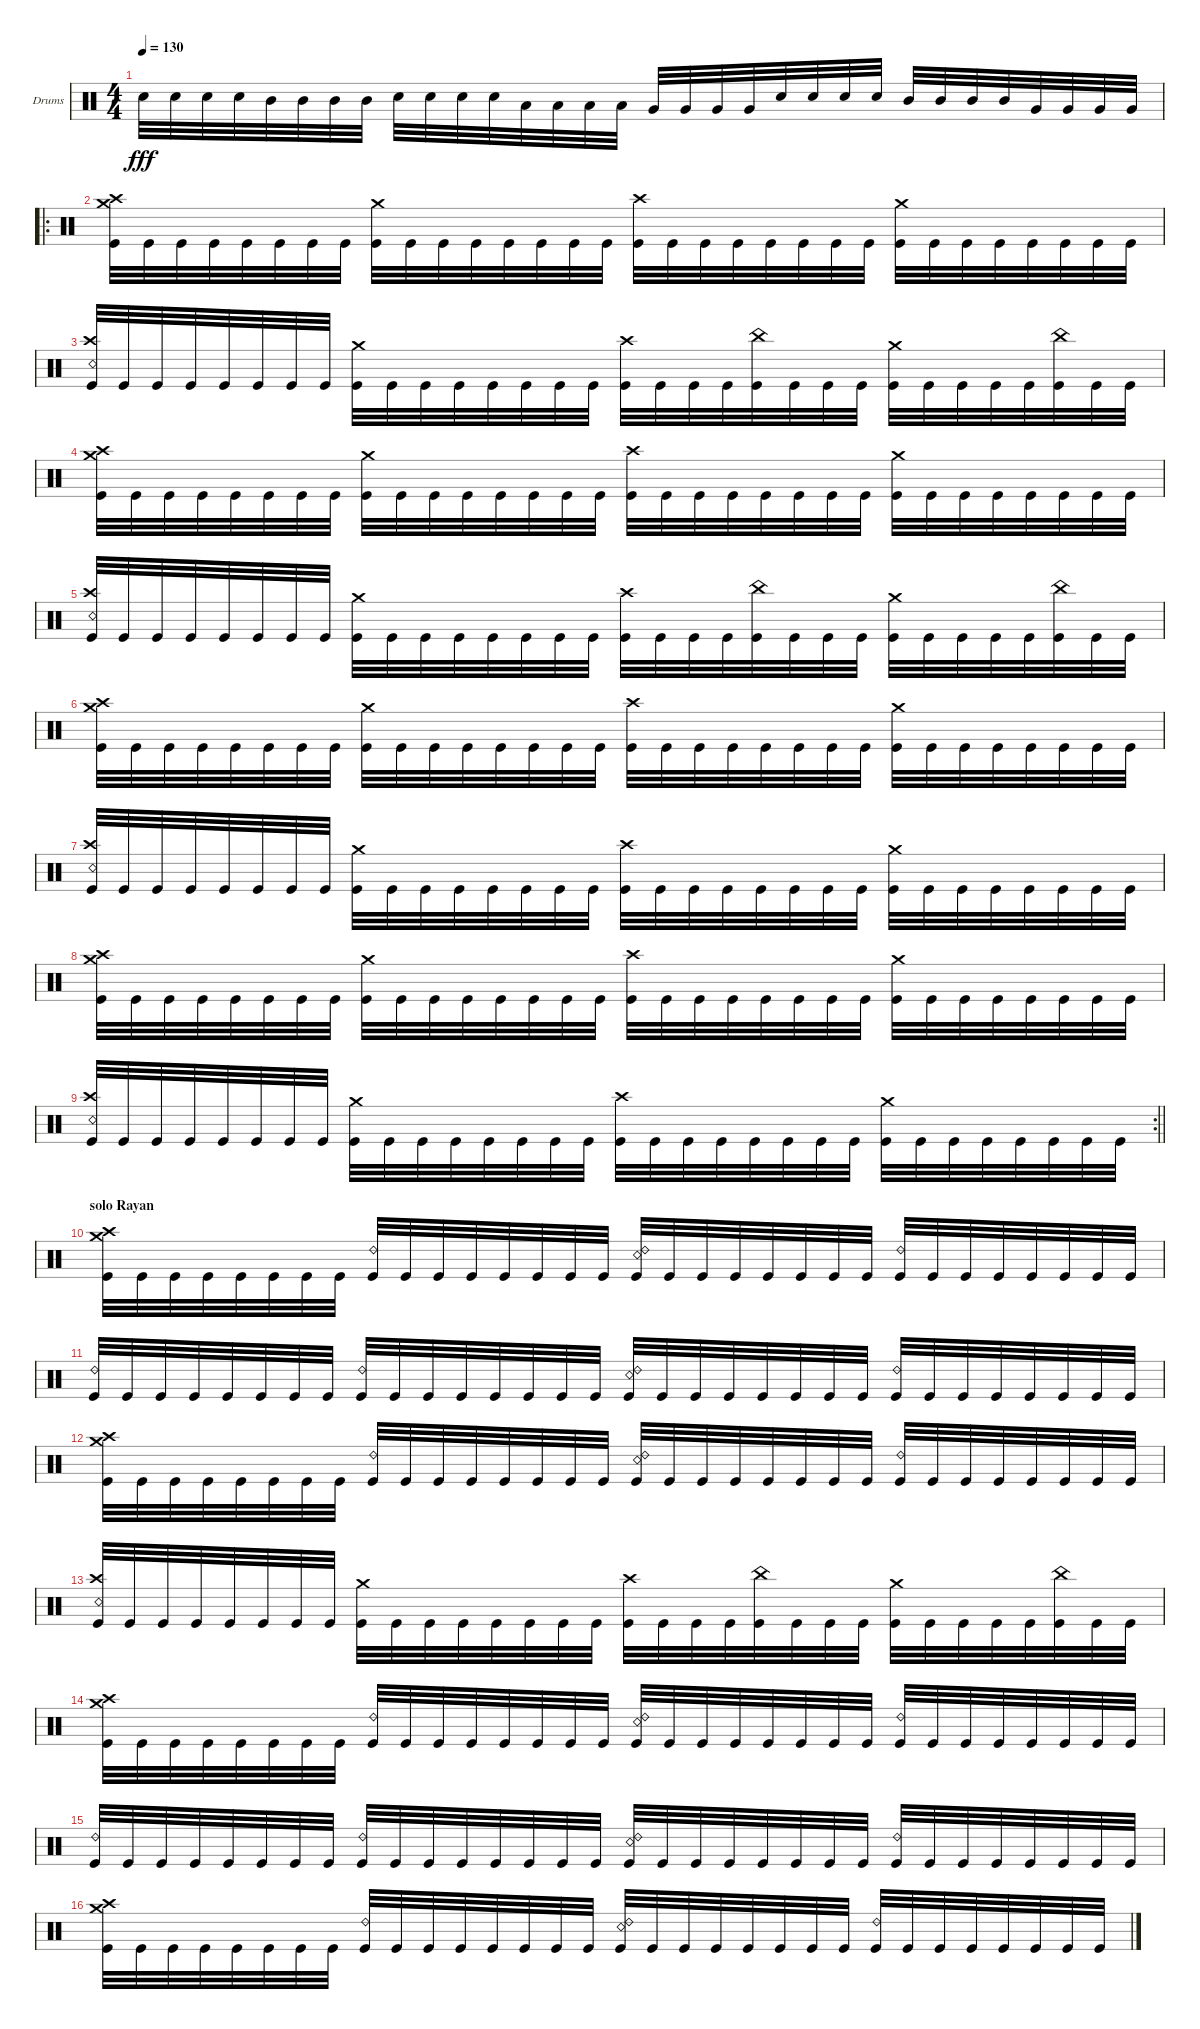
\bracketExtendMode groupsimilarinstruments
\firstSystemTrackNameOrientation horizontal
\otherSystemsTrackNameOrientation horizontal
\track ("Drumkit" "Drums") {instrument percussion}
\staff {score}
\articulation defaults
\ts (4 4)
\tempo 130
\clef neutral
\scale
0.333333
\ks c "Snare (hit) 2".32{dy fff} "Snare (hit) 2".32 "Snare (hit) 2".32 "Snare (hit) 2".32 "Mid Tom (hit)".32 "Mid Tom (hit)".32 "Mid Tom (hit)".32 "Mid Tom (hit)".32 "Snare (hit) 2".32 "Snare (hit) 2".32 "Snare (hit) 2".32 "Snare (hit) 2".32 "Low Tom (hit)".32 "Low Tom (hit)".32 "Low Tom (hit)".32 "Low Tom (hit)".32 "Very Low Tom (hit)".32 "Very Low Tom (hit)".32 "Very Low Tom (hit)".32 "Very Low Tom (hit)".32 "Snare (hit) 2".32 "Snare (hit) 2".32 "Snare (hit) 2".32 "Snare (hit) 2".32 "Mid Tom (hit)".32 "Mid Tom (hit)".32 "Mid Tom (hit)".32 "Mid Tom (hit)".32 "Very Low Tom (hit)".32 "Very Low Tom (hit)".32 "Very Low Tom (hit)".32 "Very Low Tom (hit)".32
|
\ro
\scale
0.377778 ("Kick (hit)" "Crash high (hit)" "Crash medium (hit)").32 "Kick (hit)".32 "Kick (hit)".32 "Kick (hit)".32 "Kick (hit)".32 "Kick (hit)".32 "Kick (hit)".32 "Kick (hit)".32 ("Kick (hit)" "Crash medium (hit)").32 "Kick (hit)".32 "Kick (hit)".32 "Kick (hit)".32 "Kick (hit)".32 "Kick (hit)".32 "Kick (hit)".32 "Kick (hit)".32 ("Kick (hit)" "Crash high (hit)").32 "Kick (hit)".32 "Kick (hit)".32 "Kick (hit)".32 "Kick (hit)".32 "Kick (hit)".32 "Kick (hit)".32 "Kick (hit)".32 ("Kick (hit)" "Crash medium (hit)").32 "Kick (hit)".32 "Kick (hit)".32 "Kick (hit)".32 "Kick (hit)".32 "Kick (hit)".32 "Kick (hit)".32 "Kick (hit)".32 |
\scale
0.311111 ("Kick (hit)" "Snare (rim shot)" "Crash high (hit)").32 "Kick (hit)".32 "Kick (hit)".32 "Kick (hit)".32 "Kick (hit)".32 "Kick (hit)".32 "Kick (hit)".32 "Kick (hit)".32 ("Kick (hit)" "Crash medium (hit)").32 "Kick (hit)".32 "Kick (hit)".32 "Kick (hit)".32 "Kick (hit)".32 "Kick (hit)".32 "Kick (hit)".32 "Kick (hit)".32 ("Kick (hit)" "Crash high (hit)").32 "Kick (hit)".32 "Kick (hit)".32 "Kick (hit)".32 ("Kick (hit)" "China (hit)").32 "Kick (hit)".32 "Kick (hit)".32 "Kick (hit)".32 ("Kick (hit)" "Crash medium (hit)").32 "Kick (hit)".32 "Kick (hit)".32 "Kick (hit)".32 "Kick (hit)".32 ("Kick (hit)" "China (hit)").32 "Kick (hit)".32 "Kick (hit)".32 |
\scale
0.311111 ("Kick (hit)" "Crash high (hit)" "Crash medium (hit)").32 "Kick (hit)".32 "Kick (hit)".32 "Kick (hit)".32 "Kick (hit)".32 "Kick (hit)".32 "Kick (hit)".32 "Kick (hit)".32 ("Kick (hit)" "Crash medium (hit)").32 "Kick (hit)".32 "Kick (hit)".32 "Kick (hit)".32 "Kick (hit)".32 "Kick (hit)".32 "Kick (hit)".32 "Kick (hit)".32 ("Kick (hit)" "Crash high (hit)").32 "Kick (hit)".32 "Kick (hit)".32 "Kick (hit)".32 "Kick (hit)".32 "Kick (hit)".32 "Kick (hit)".32 "Kick (hit)".32 ("Kick (hit)" "Crash medium (hit)").32 "Kick (hit)".32 "Kick (hit)".32 "Kick (hit)".32 "Kick (hit)".32 "Kick (hit)".32 "Kick (hit)".32 "Kick (hit)".32 |
\scale
0.333333 ("Kick (hit)" "Snare (rim shot)" "Crash high (hit)").32 "Kick (hit)".32 "Kick (hit)".32 "Kick (hit)".32 "Kick (hit)".32 "Kick (hit)".32 "Kick (hit)".32 "Kick (hit)".32 ("Kick (hit)" "Crash medium (hit)").32 "Kick (hit)".32 "Kick (hit)".32 "Kick (hit)".32 "Kick (hit)".32 "Kick (hit)".32 "Kick (hit)".32 "Kick (hit)".32 ("Kick (hit)" "Crash high (hit)").32 "Kick (hit)".32 "Kick (hit)".32 "Kick (hit)".32 ("Kick (hit)" "China (hit)").32 "Kick (hit)".32 "Kick (hit)".32 "Kick (hit)".32 ("Kick (hit)" "Crash medium (hit)").32 "Kick (hit)".32 "Kick (hit)".32 "Kick (hit)".32 "Kick (hit)".32 ("Kick (hit)" "China (hit)").32 "Kick (hit)".32 "Kick (hit)".32 |
\scale
0.333333 ("Kick (hit)" "Crash high (hit)" "Crash medium (hit)").32 "Kick (hit)".32 "Kick (hit)".32 "Kick (hit)".32 "Kick (hit)".32 "Kick (hit)".32 "Kick (hit)".32 "Kick (hit)".32 ("Kick (hit)" "Crash medium (hit)").32 "Kick (hit)".32 "Kick (hit)".32 "Kick (hit)".32 "Kick (hit)".32 "Kick (hit)".32 "Kick (hit)".32 "Kick (hit)".32 ("Kick (hit)" "Crash high (hit)").32 "Kick (hit)".32 "Kick (hit)".32 "Kick (hit)".32 "Kick (hit)".32 "Kick (hit)".32 "Kick (hit)".32 "Kick (hit)".32 ("Kick (hit)" "Crash medium (hit)").32 "Kick (hit)".32 "Kick (hit)".32 "Kick (hit)".32 "Kick (hit)".32 "Kick (hit)".32 "Kick (hit)".32 "Kick (hit)".32 |
\scale
0.333333 ("Kick (hit)" "Crash high (hit)" "Snare (rim shot)").32 "Kick (hit)".32 "Kick (hit)".32 "Kick (hit)".32 "Kick (hit)".32 "Kick (hit)".32 "Kick (hit)".32 "Kick (hit)".32 ("Kick (hit)" "Crash medium (hit)").32 "Kick (hit)".32 "Kick (hit)".32 "Kick (hit)".32 "Kick (hit)".32 "Kick (hit)".32 "Kick (hit)".32 "Kick (hit)".32 ("Kick (hit)" "Crash high (hit)").32 "Kick (hit)".32 "Kick (hit)".32 "Kick (hit)".32 "Kick (hit)".32 "Kick (hit)".32 "Kick (hit)".32 "Kick (hit)".32 ("Kick (hit)" "Crash medium (hit)").32 "Kick (hit)".32 "Kick (hit)".32 "Kick (hit)".32 "Kick (hit)".32 "Kick (hit)".32 "Kick (hit)".32 "Kick (hit)".32 |
\scale
0.321839 ("Kick (hit)" "Crash high (hit)" "Crash medium (hit)").32 "Kick (hit)".32 "Kick (hit)".32 "Kick (hit)".32 "Kick (hit)".32 "Kick (hit)".32 "Kick (hit)".32 "Kick (hit)".32 ("Kick (hit)" "Crash medium (hit)").32 "Kick (hit)".32 "Kick (hit)".32 "Kick (hit)".32 "Kick (hit)".32 "Kick (hit)".32 "Kick (hit)".32 "Kick (hit)".32 ("Kick (hit)" "Crash high (hit)").32 "Kick (hit)".32 "Kick (hit)".32 "Kick (hit)".32 "Kick (hit)".32 "Kick (hit)".32 "Kick (hit)".32 "Kick (hit)".32 ("Kick (hit)" "Crash medium (hit)").32 "Kick (hit)".32 "Kick (hit)".32 "Kick (hit)".32 "Kick (hit)".32 "Kick (hit)".32 "Kick (hit)".32 "Kick (hit)".32 |
\rc 2
\scale
0.356322
\barLineRight lightlight
("Kick (hit)" "Crash high (hit)" "Snare (rim shot)").32 "Kick (hit)".32 "Kick (hit)".32 "Kick (hit)".32 "Kick (hit)".32 "Kick (hit)".32 "Kick (hit)".32 "Kick (hit)".32 ("Kick (hit)" "Crash medium (hit)").32 "Kick (hit)".32 "Kick (hit)".32 "Kick (hit)".32 "Kick (hit)".32 "Kick (hit)".32 "Kick (hit)".32 "Kick (hit)".32 ("Kick (hit)" "Crash high (hit)").32 "Kick (hit)".32 "Kick (hit)".32 "Kick (hit)".32 "Kick (hit)".32 "Kick (hit)".32 "Kick (hit)".32 "Kick (hit)".32 ("Kick (hit)" "Crash medium (hit)").32 "Kick (hit)".32 "Kick (hit)".32 "Kick (hit)".32 "Kick (hit)".32 "Kick (hit)".32 "Kick (hit)".32 "Kick (hit)".32 |
\section ("" "solo Rayan")
\scale
0.321839 ("Kick (hit)" "Crash high (hit)" "Crash medium (hit)").32 "Kick (hit)".32 "Kick (hit)".32 "Kick (hit)".32 "Kick (hit)".32 "Kick (hit)".32 "Kick (hit)".32 "Kick (hit)".32 ("Kick (hit)" "Ride (bell) 2").32 "Kick (hit)".32 "Kick (hit)".32 "Kick (hit)".32 "Kick (hit)".32 "Kick (hit)".32 "Kick (hit)".32 "Kick (hit)".32 ("Kick (hit)" "Ride (bell) 2" "Snare (rim shot)").32 "Kick (hit)".32 "Kick (hit)".32 "Kick (hit)".32 "Kick (hit)".32 "Kick (hit)".32 "Kick (hit)".32 "Kick (hit)".32 ("Kick (hit)" "Ride (bell) 2").32 "Kick (hit)".32 "Kick (hit)".32 "Kick (hit)".32 "Kick (hit)".32 "Kick (hit)".32 "Kick (hit)".32 "Kick (hit)".32 |
\scale
0.333333 ("Kick (hit)" "Ride (bell) 2").32 "Kick (hit)".32 "Kick (hit)".32 "Kick (hit)".32 "Kick (hit)".32 "Kick (hit)".32 "Kick (hit)".32 "Kick (hit)".32 ("Kick (hit)" "Ride (bell) 2").32 "Kick (hit)".32 "Kick (hit)".32 "Kick (hit)".32 "Kick (hit)".32 "Kick (hit)".32 "Kick (hit)".32 "Kick (hit)".32 ("Kick (hit)" "Ride (bell) 2" "Snare (rim shot)").32 "Kick (hit)".32 "Kick (hit)".32 "Kick (hit)".32 "Kick (hit)".32 "Kick (hit)".32 "Kick (hit)".32 "Kick (hit)".32 ("Kick (hit)" "Ride (bell) 2").32 "Kick (hit)".32 "Kick (hit)".32 "Kick (hit)".32 "Kick (hit)".32 "Kick (hit)".32 "Kick (hit)".32 "Kick (hit)".32 |
\scale
0.333333 ("Kick (hit)" "Crash high (hit)" "Crash medium (hit)").32 "Kick (hit)".32 "Kick (hit)".32 "Kick (hit)".32 "Kick (hit)".32 "Kick (hit)".32 "Kick (hit)".32 "Kick (hit)".32 ("Kick (hit)" "Ride (bell) 2").32 "Kick (hit)".32 "Kick (hit)".32 "Kick (hit)".32 "Kick (hit)".32 "Kick (hit)".32 "Kick (hit)".32 "Kick (hit)".32 ("Kick (hit)" "Ride (bell) 2" "Snare (rim shot)").32 "Kick (hit)".32 "Kick (hit)".32 "Kick (hit)".32 "Kick (hit)".32 "Kick (hit)".32 "Kick (hit)".32 "Kick (hit)".32 ("Kick (hit)" "Ride (bell) 2").32 "Kick (hit)".32 "Kick (hit)".32 "Kick (hit)".32 "Kick (hit)".32 "Kick (hit)".32 "Kick (hit)".32 "Kick (hit)".32 |
\scale
0.333333 ("Kick (hit)" "Snare (rim shot)" "Crash high (hit)").32 "Kick (hit)".32 "Kick (hit)".32 "Kick (hit)".32 "Kick (hit)".32 "Kick (hit)".32 "Kick (hit)".32 "Kick (hit)".32 ("Kick (hit)" "Crash medium (hit)").32 "Kick (hit)".32 "Kick (hit)".32 "Kick (hit)".32 "Kick (hit)".32 "Kick (hit)".32 "Kick (hit)".32 "Kick (hit)".32 ("Kick (hit)" "Crash high (hit)").32 "Kick (hit)".32 "Kick (hit)".32 "Kick (hit)".32 ("Kick (hit)" "China (hit)").32 "Kick (hit)".32 "Kick (hit)".32 "Kick (hit)".32 ("Kick (hit)" "Crash medium (hit)").32 "Kick (hit)".32 "Kick (hit)".32 "Kick (hit)".32 "Kick (hit)".32 ("Kick (hit)" "China (hit)").32 "Kick (hit)".32 "Kick (hit)".32 |
\scale
0.333333 ("Kick (hit)" "Crash high (hit)" "Crash medium (hit)").32 "Kick (hit)".32 "Kick (hit)".32 "Kick (hit)".32 "Kick (hit)".32 "Kick (hit)".32 "Kick (hit)".32 "Kick (hit)".32 ("Kick (hit)" "Ride (bell) 2").32 "Kick (hit)".32 "Kick (hit)".32 "Kick (hit)".32 "Kick (hit)".32 "Kick (hit)".32 "Kick (hit)".32 "Kick (hit)".32 ("Kick (hit)" "Ride (bell) 2" "Snare (rim shot)").32 "Kick (hit)".32 "Kick (hit)".32 "Kick (hit)".32 "Kick (hit)".32 "Kick (hit)".32 "Kick (hit)".32 "Kick (hit)".32 ("Kick (hit)" "Ride (bell) 2").32 "Kick (hit)".32 "Kick (hit)".32 "Kick (hit)".32 "Kick (hit)".32 "Kick (hit)".32 "Kick (hit)".32 "Kick (hit)".32 |
\scale
0.333333 ("Kick (hit)" "Ride (bell) 2").32 "Kick (hit)".32 "Kick (hit)".32 "Kick (hit)".32 "Kick (hit)".32 "Kick (hit)".32 "Kick (hit)".32 "Kick (hit)".32 ("Kick (hit)" "Ride (bell) 2").32 "Kick (hit)".32 "Kick (hit)".32 "Kick (hit)".32 "Kick (hit)".32 "Kick (hit)".32 "Kick (hit)".32 "Kick (hit)".32 ("Kick (hit)" "Ride (bell) 2" "Snare (rim shot)").32 "Kick (hit)".32 "Kick (hit)".32 "Kick (hit)".32 "Kick (hit)".32 "Kick (hit)".32 "Kick (hit)".32 "Kick (hit)".32 ("Kick (hit)" "Ride (bell) 2").32 "Kick (hit)".32 "Kick (hit)".32 "Kick (hit)".32 "Kick (hit)".32 "Kick (hit)".32 "Kick (hit)".32 "Kick (hit)".32 |
("Kick (hit)" "Crash high (hit)" "Crash medium (hit)").32 "Kick (hit)".32 "Kick (hit)".32 "Kick (hit)".32 "Kick (hit)".32 "Kick (hit)".32 "Kick (hit)".32 "Kick (hit)".32 ("Kick (hit)" "Ride (bell) 2").32 "Kick (hit)".32 "Kick (hit)".32 "Kick (hit)".32 "Kick (hit)".32 "Kick (hit)".32 "Kick (hit)".32 "Kick (hit)".32 ("Kick (hit)" "Ride (bell) 2" "Snare (rim shot)").32 "Kick (hit)".32 "Kick (hit)".32 "Kick (hit)".32 "Kick (hit)".32 "Kick (hit)".32 "Kick (hit)".32 "Kick (hit)".32 ("Kick (hit)" "Ride (bell) 2").32 "Kick (hit)".32 "Kick (hit)".32 "Kick (hit)".32 "Kick (hit)".32 "Kick (hit)".32 "Kick (hit)".32 "Kick (hit)".32
